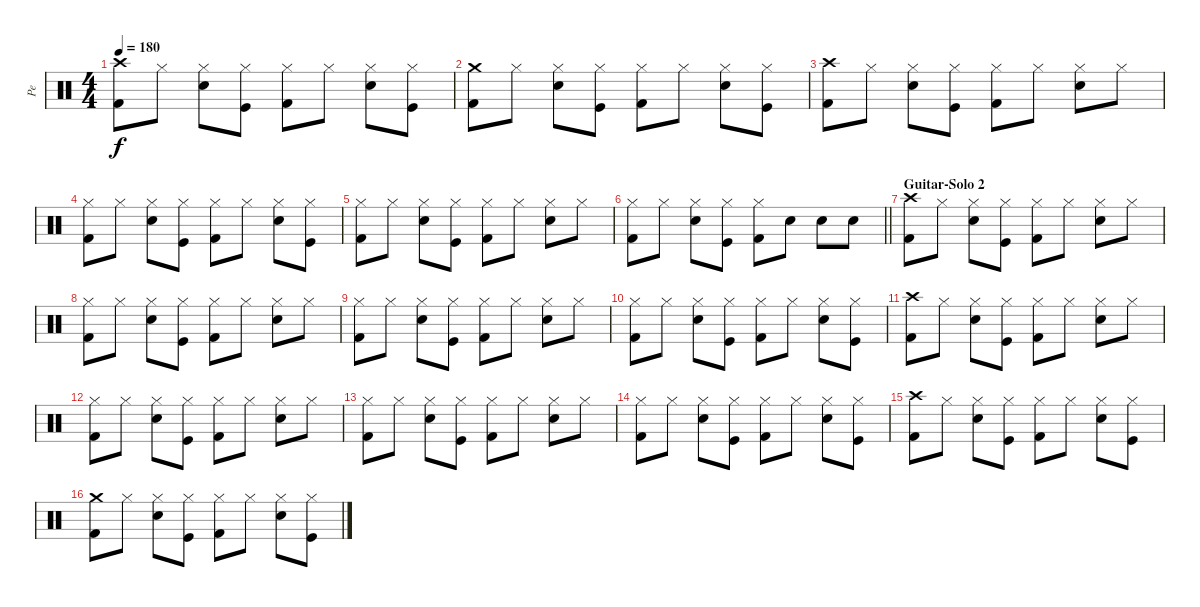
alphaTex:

\track ("Pe" "Pe") {instrument percussion}
\staff {score}
\articulation defaults
\ts (4 4)
\tempo 180
\clef neutral
\ks c
("Kick (hit) 2" "Crash high (hit)").8{dy f} "Hi-Hat (closed)".8 ("Electric Snare (hit)" "Hi-Hat (closed)").8 ("Kick (hit)" "Hi-Hat (closed)").8 ("Kick (hit) 2" "Hi-Hat (closed)").8 "Hi-Hat (closed)".8 ("Electric Snare (hit)" "Hi-Hat (closed)").8 ("Kick (hit)" "Hi-Hat (closed)").8 |
("Kick (hit) 2" "Crash medium (hit)").8 "Hi-Hat (closed)".8 ("Electric Snare (hit)" "Hi-Hat (closed)").8 ("Kick (hit)" "Hi-Hat (closed)").8 ("Kick (hit) 2" "Hi-Hat (closed)").8 "Hi-Hat (closed)".8 ("Electric Snare (hit)" "Hi-Hat (closed)").8 ("Kick (hit)" "Hi-Hat (closed)").8 |
("Kick (hit) 2" "Crash high (hit)").8 "Hi-Hat (closed)".8 ("Electric Snare (hit)" "Hi-Hat (closed)").8 ("Kick (hit)" "Hi-Hat (closed)").8 ("Kick (hit) 2" "Hi-Hat (closed)").8 "Hi-Hat (closed)".8 ("Electric Snare (hit)" "Hi-Hat (closed)").8 "Hi-Hat (closed)".8 |
("Kick (hit) 2" "Hi-Hat (closed)").8 "Hi-Hat (closed)".8 ("Electric Snare (hit)" "Hi-Hat (closed)").8 ("Kick (hit)" "Hi-Hat (closed)").8 ("Kick (hit) 2" "Hi-Hat (closed)").8 "Hi-Hat (closed)".8 ("Electric Snare (hit)" "Hi-Hat (closed)").8 ("Kick (hit)" "Hi-Hat (closed)").8 |
("Kick (hit) 2" "Hi-Hat (closed)").8 "Hi-Hat (closed)".8 ("Electric Snare (hit)" "Hi-Hat (closed)").8 ("Kick (hit)" "Hi-Hat (closed)").8 ("Kick (hit) 2" "Hi-Hat (closed)").8 "Hi-Hat (closed)".8 ("Electric Snare (hit)" "Hi-Hat (closed)").8 "Hi-Hat (closed)".8 |
\barLineRight lightlight
("Kick (hit) 2" "Hi-Hat (closed)").8 "Hi-Hat (closed)".8 ("Electric Snare (hit)" "Hi-Hat (closed)").8 ("Kick (hit)" "Hi-Hat (closed)").8 ("Kick (hit) 2" "Hi-Hat (closed)").8 "Electric Snare (hit)".8 "Electric Snare (hit)".8 "Electric Snare (hit)".8 |
\section ("" "Guitar-Solo 2")
("Kick (hit) 2" "Crash high (hit)").8 "Hi-Hat (closed)".8 ("Electric Snare (hit)" "Hi-Hat (closed)").8 ("Kick (hit)" "Hi-Hat (closed)").8 ("Kick (hit) 2" "Hi-Hat (closed)").8 "Hi-Hat (closed)".8 ("Electric Snare (hit)" "Hi-Hat (closed)").8 "Hi-Hat (closed)".8 |
("Kick (hit) 2" "Hi-Hat (closed)").8 "Hi-Hat (closed)".8 ("Electric Snare (hit)" "Hi-Hat (closed)").8 ("Kick (hit)" "Hi-Hat (closed)").8 ("Kick (hit) 2" "Hi-Hat (closed)").8 "Hi-Hat (closed)".8 ("Electric Snare (hit)" "Hi-Hat (closed)").8 "Hi-Hat (closed)".8 |
("Kick (hit) 2" "Hi-Hat (closed)").8 "Hi-Hat (closed)".8 ("Electric Snare (hit)" "Hi-Hat (closed)").8 ("Kick (hit)" "Hi-Hat (closed)").8 ("Kick (hit) 2" "Hi-Hat (closed)").8 "Hi-Hat (closed)".8 ("Electric Snare (hit)" "Hi-Hat (closed)").8 "Hi-Hat (closed)".8 |
("Kick (hit) 2" "Hi-Hat (closed)").8 "Hi-Hat (closed)".8 ("Electric Snare (hit)" "Hi-Hat (closed)").8 ("Kick (hit)" "Hi-Hat (closed)").8 ("Kick (hit) 2" "Hi-Hat (closed)").8 "Hi-Hat (closed)".8 ("Electric Snare (hit)" "Hi-Hat (closed)").8 ("Kick (hit)" "Hi-Hat (closed)").8 |
("Kick (hit) 2" "Crash high (hit)").8 "Hi-Hat (closed)".8 ("Electric Snare (hit)" "Hi-Hat (closed)").8 ("Kick (hit)" "Hi-Hat (closed)").8 ("Kick (hit) 2" "Hi-Hat (closed)").8 "Hi-Hat (closed)".8 ("Electric Snare (hit)" "Hi-Hat (closed)").8 "Hi-Hat (closed)".8 |
("Kick (hit) 2" "Hi-Hat (closed)").8 "Hi-Hat (closed)".8 ("Electric Snare (hit)" "Hi-Hat (closed)").8 ("Kick (hit)" "Hi-Hat (closed)").8 ("Kick (hit) 2" "Hi-Hat (closed)").8 "Hi-Hat (closed)".8 ("Electric Snare (hit)" "Hi-Hat (closed)").8 "Hi-Hat (closed)".8 |
("Kick (hit) 2" "Hi-Hat (closed)").8 "Hi-Hat (closed)".8 ("Electric Snare (hit)" "Hi-Hat (closed)").8 ("Kick (hit)" "Hi-Hat (closed)").8 ("Kick (hit) 2" "Hi-Hat (closed)").8 "Hi-Hat (closed)".8 ("Electric Snare (hit)" "Hi-Hat (closed)").8 "Hi-Hat (closed)".8 |
("Kick (hit) 2" "Hi-Hat (closed)").8 "Hi-Hat (closed)".8 ("Electric Snare (hit)" "Hi-Hat (closed)").8 ("Kick (hit)" "Hi-Hat (closed)").8 ("Kick (hit) 2" "Hi-Hat (closed)").8 "Hi-Hat (closed)".8 ("Electric Snare (hit)" "Hi-Hat (closed)").8 ("Kick (hit)" "Hi-Hat (closed)").8 |
("Kick (hit) 2" "Crash high (hit)").8 "Hi-Hat (closed)".8 ("Electric Snare (hit)" "Hi-Hat (closed)").8 ("Kick (hit)" "Hi-Hat (closed)").8 ("Kick (hit) 2" "Hi-Hat (closed)").8 "Hi-Hat (closed)".8 ("Electric Snare (hit)" "Hi-Hat (closed)").8 ("Kick (hit)" "Hi-Hat (closed)").8 |
("Kick (hit) 2" "Crash medium (hit)").8 "Hi-Hat (closed)".8 ("Electric Snare (hit)" "Hi-Hat (closed)").8 ("Kick (hit)" "Hi-Hat (closed)").8 ("Kick (hit) 2" "Hi-Hat (closed)").8 "Hi-Hat (closed)".8 ("Electric Snare (hit)" "Hi-Hat (closed)").8 ("Kick (hit)" "Hi-Hat (closed)").8
